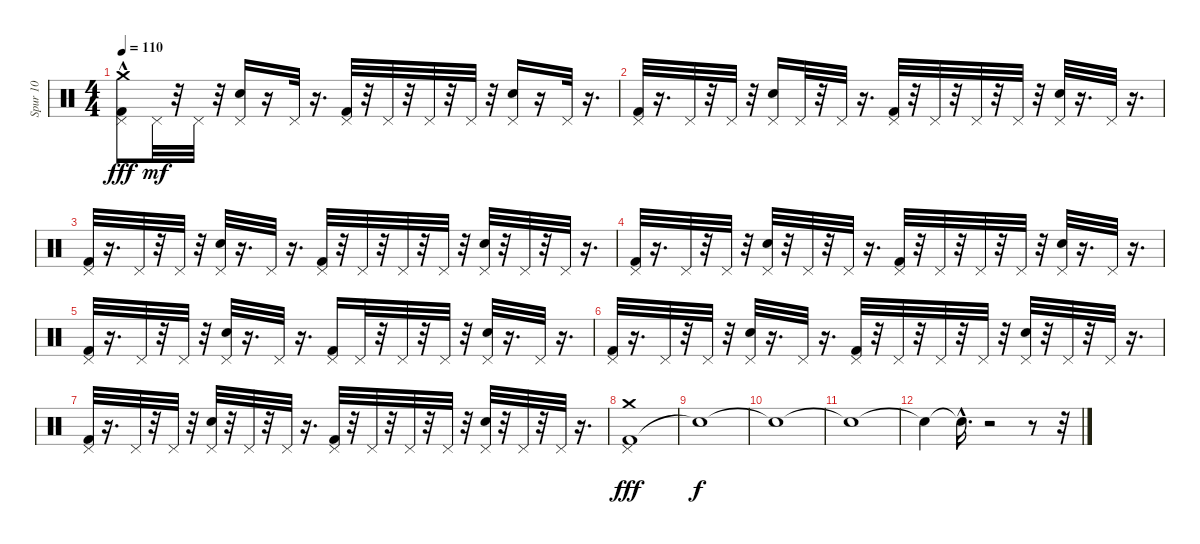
\track ("Spur 10" "Spur 10") {instrument percussion}
\staff {score}
\articulation defaults
\ts (4 4)
\tempo 110
\clef neutral
\ks c
("Kick (hit) 2" "Pedal Hi-Hat (hit)" "Crash medium (hit)"{hac}).8{dy fff} "Pedal Hi-Hat (hit)".32{dy mf} r.32 "Pedal Hi-Hat (hit)".32 r.32 ("Electric Snare (hit)" "Pedal Hi-Hat (hit)").16 r.16 "Pedal Hi-Hat (hit)".32 r.16{d} ("Kick (hit) 2" "Pedal Hi-Hat (hit)").32 r.32 "Pedal Hi-Hat (hit)".32 r.32 "Pedal Hi-Hat (hit)".32 r.32 "Pedal Hi-Hat (hit)".32 r.32 ("Electric Snare (hit)" "Pedal Hi-Hat (hit)").16 r.16 "Pedal Hi-Hat (hit)".32 r.16{d} |
("Kick (hit) 2" "Pedal Hi-Hat (hit)").32 r.16{d} "Pedal Hi-Hat (hit)".32 r.32 "Pedal Hi-Hat (hit)".32 r.32 ("Electric Snare (hit)" "Pedal Hi-Hat (hit)").16 "Pedal Hi-Hat (hit)".32 r.32 "Pedal Hi-Hat (hit)".32 r.16{d} ("Kick (hit) 2" "Pedal Hi-Hat (hit)").32 r.32 "Pedal Hi-Hat (hit)".32 r.32 "Pedal Hi-Hat (hit)".32 r.32 "Pedal Hi-Hat (hit)".32 r.32 ("Electric Snare (hit)" "Pedal Hi-Hat (hit)").32 r.16{d} "Pedal Hi-Hat (hit)".32 r.16{d} |
("Kick (hit) 2" "Pedal Hi-Hat (hit)").32 r.16{d} "Pedal Hi-Hat (hit)".32 r.32 "Pedal Hi-Hat (hit)".32 r.32 ("Electric Snare (hit)" "Pedal Hi-Hat (hit)").32 r.16{d} "Pedal Hi-Hat (hit)".32 r.16{d} ("Kick (hit) 2" "Pedal Hi-Hat (hit)").32 r.32 "Pedal Hi-Hat (hit)".32 r.32 "Pedal Hi-Hat (hit)".32 r.32 "Pedal Hi-Hat (hit)".32 r.32 ("Electric Snare (hit)" "Pedal Hi-Hat (hit)").32 r.32 "Pedal Hi-Hat (hit)".32 r.32 "Pedal Hi-Hat (hit)".32 r.16{d} |
("Kick (hit) 2" "Pedal Hi-Hat (hit)").32 r.16{d} "Pedal Hi-Hat (hit)".32 r.32 "Pedal Hi-Hat (hit)".32 r.32 ("Electric Snare (hit)" "Pedal Hi-Hat (hit)").32 r.32 "Pedal Hi-Hat (hit)".32 r.32 "Pedal Hi-Hat (hit)".32 r.16{d} ("Kick (hit) 2" "Pedal Hi-Hat (hit)").32 r.32 "Pedal Hi-Hat (hit)".32 r.32 "Pedal Hi-Hat (hit)".32 r.32 "Pedal Hi-Hat (hit)".32 r.32 ("Electric Snare (hit)" "Pedal Hi-Hat (hit)").32 r.16{d} "Pedal Hi-Hat (hit)".32 r.16{d} |
("Kick (hit) 2" "Pedal Hi-Hat (hit)").32 r.16{d} "Pedal Hi-Hat (hit)".32 r.32 "Pedal Hi-Hat (hit)".32 r.32 ("Electric Snare (hit)" "Pedal Hi-Hat (hit)").32 r.16{d} "Pedal Hi-Hat (hit)".32 r.16{d} ("Kick (hit) 2" "Pedal Hi-Hat (hit)").16 "Pedal Hi-Hat (hit)".32 r.32 "Pedal Hi-Hat (hit)".32 r.32 "Pedal Hi-Hat (hit)".32 r.32 ("Electric Snare (hit)" "Pedal Hi-Hat (hit)").32 r.16{d} "Pedal Hi-Hat (hit)".32 r.16{d} |
("Kick (hit) 2" "Pedal Hi-Hat (hit)").32 r.16{d} "Pedal Hi-Hat (hit)".32 r.32 "Pedal Hi-Hat (hit)".32 r.32 ("Electric Snare (hit)" "Pedal Hi-Hat (hit)").32 r.16{d} "Pedal Hi-Hat (hit)".32 r.16{d} ("Kick (hit) 2" "Pedal Hi-Hat (hit)").32 r.32 "Pedal Hi-Hat (hit)".32 r.32 "Pedal Hi-Hat (hit)".32 r.32 "Pedal Hi-Hat (hit)".32 r.32 ("Electric Snare (hit)" "Pedal Hi-Hat (hit)").32 r.32 "Pedal Hi-Hat (hit)".32 r.32 "Pedal Hi-Hat (hit)".32 r.16{d} |
("Kick (hit) 2" "Pedal Hi-Hat (hit)").32 r.16{d} "Pedal Hi-Hat (hit)".32 r.32 "Pedal Hi-Hat (hit)".32 r.32 ("Electric Snare (hit)" "Pedal Hi-Hat (hit)").32 r.32 "Pedal Hi-Hat (hit)".32 r.32 "Pedal Hi-Hat (hit)".32 r.16{d} ("Kick (hit) 2" "Pedal Hi-Hat (hit)").32 r.32 "Pedal Hi-Hat (hit)".32 r.32 "Pedal Hi-Hat (hit)".32 r.32 "Pedal Hi-Hat (hit)".32 r.32 ("Electric Snare (hit)" "Pedal Hi-Hat (hit)").32 r.32 "Pedal Hi-Hat (hit)".32 r.32 "Pedal Hi-Hat (hit)".32 r.16{d} |
("Kick (hit) 2" "Pedal Hi-Hat (hit)" "Crash medium (hit)").1{dy fff} |
"Snare (hit)"{t}.1{dy f} |
"Snare (hit)"{t}.1 |
"Snare (hit)"{t}.1 |
"Snare (hit)"{t}.4 "Snare (hit)"{hac t}.16{d} r.2 r.8 r.32
